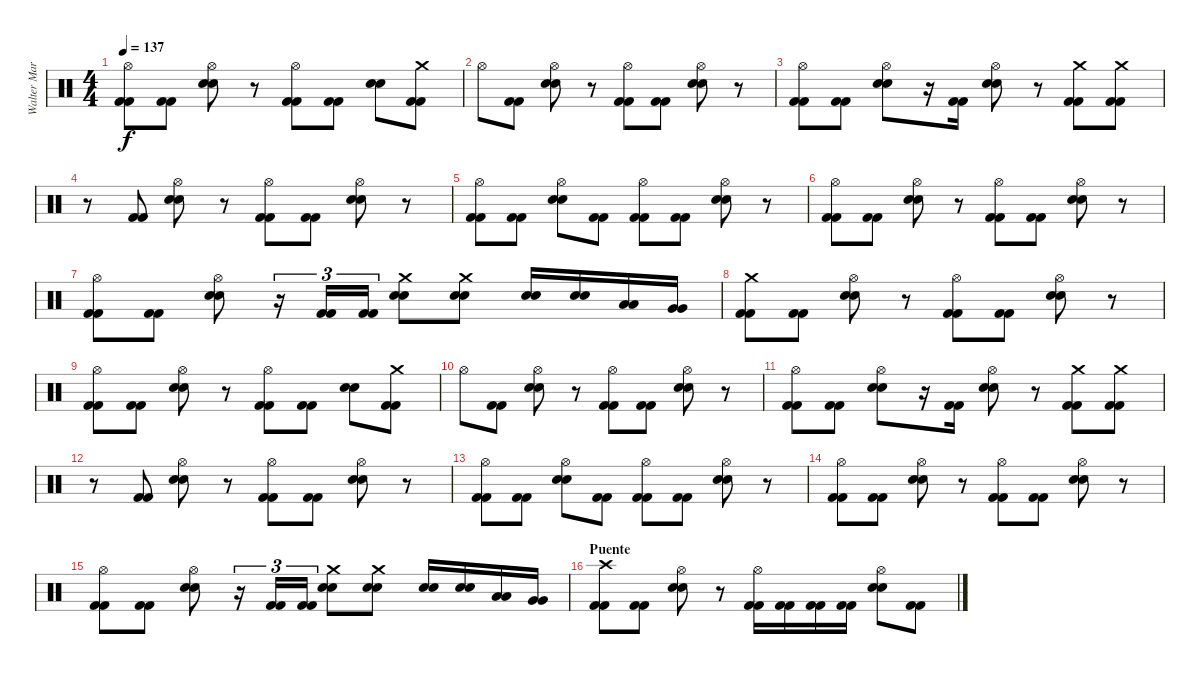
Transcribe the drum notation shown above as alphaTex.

\track ("Walter Martinez (bateria)" "Walter Mar") {instrument percussion}
\staff {score}
\articulation defaults
\ts (4 4)
\tempo 137
\clef neutral
\ks c
("Hi-Hat (open)" "Kick (hit) 2" "Kick (hit) 2").8{dy f} ("Kick (hit) 2" "Kick (hit) 2").8 ("Hi-Hat (open)" "Snare (hit) 2" "Snare (hit) 2").8 r.8 ("Hi-Hat (open)" "Kick (hit) 2" "Kick (hit) 2").8 ("Kick (hit) 2" "Kick (hit) 2").8 ("Snare (hit) 2" "Snare (hit) 2").8 ("Crash medium (hit)" "Kick (hit) 2" "Kick (hit) 2").8 |
"Hi-Hat (open)".8 ("Kick (hit) 2" "Kick (hit) 2").8 ("Hi-Hat (open)" "Snare (hit) 2" "Snare (hit) 2").8 r.8 ("Hi-Hat (open)" "Kick (hit) 2" "Kick (hit) 2").8 ("Kick (hit) 2" "Kick (hit) 2").8 ("Hi-Hat (open)" "Snare (hit) 2" "Snare (hit) 2").8 r.8 |
("Hi-Hat (open)" "Kick (hit) 2" "Kick (hit) 2").8 ("Kick (hit) 2" "Kick (hit) 2").8 ("Hi-Hat (open)" "Snare (hit) 2" "Snare (hit) 2").8 r.16 ("Kick (hit) 2" "Kick (hit) 2").16 ("Hi-Hat (open)" "Snare (hit) 2" "Snare (hit) 2").8 r.8 ("Crash medium (hit)" "Kick (hit) 2" "Kick (hit) 2").8 ("Crash medium (hit)" "Kick (hit) 2" "Kick (hit) 2").8 |
r.8 ("Kick (hit) 2" "Kick (hit) 2").8 ("Hi-Hat (open)" "Snare (hit) 2" "Snare (hit) 2").8 r.8 ("Hi-Hat (open)" "Kick (hit) 2" "Kick (hit) 2").8 ("Kick (hit) 2" "Kick (hit) 2").8 ("Hi-Hat (open)" "Snare (hit) 2" "Snare (hit) 2").8 r.8 |
("Hi-Hat (open)" "Kick (hit) 2" "Kick (hit) 2").8 ("Kick (hit) 2" "Kick (hit) 2").8 ("Hi-Hat (open)" "Snare (hit) 2" "Snare (hit) 2").8 ("Kick (hit) 2" "Kick (hit) 2").8 ("Hi-Hat (open)" "Kick (hit) 2" "Kick (hit) 2").8 ("Kick (hit) 2" "Kick (hit) 2").8 ("Hi-Hat (open)" "Snare (hit) 2" "Snare (hit) 2").8 r.8 |
("Hi-Hat (open)" "Kick (hit) 2" "Kick (hit) 2").8 ("Kick (hit) 2" "Kick (hit) 2").8 ("Hi-Hat (open)" "Snare (hit) 2" "Snare (hit) 2").8 r.8 ("Hi-Hat (open)" "Kick (hit) 2" "Kick (hit) 2").8 ("Kick (hit) 2" "Kick (hit) 2").8 ("Hi-Hat (open)" "Snare (hit) 2" "Snare (hit) 2").8 r.8 |
("Hi-Hat (open)" "Kick (hit) 2" "Kick (hit) 2").8 ("Kick (hit) 2" "Kick (hit) 2").8 ("Hi-Hat (open)" "Snare (hit) 2" "Snare (hit) 2").8 r.16{tu (3 2)} ("Kick (hit) 2" "Kick (hit) 2").16{tu (3 2)} ("Kick (hit) 2" "Kick (hit) 2").16{tu (3 2)} ("Crash medium (hit)" "Snare (hit) 2" "Snare (hit) 2").8 ("Crash medium (hit)" "Snare (hit) 2" "Snare (hit) 2").8 ("Snare (hit) 2" "Snare (hit) 2").16 ("Snare (hit) 2" "Snare (hit) 2").16 ("Low Tom (hit)" "Low Tom (hit)").16 ("Very Low Tom (hit)" "Very Low Tom (hit)").16 |
("Crash medium (hit)" "Kick (hit) 2" "Kick (hit) 2").8 ("Kick (hit) 2" "Kick (hit) 2").8 ("Hi-Hat (open)" "Snare (hit) 2" "Snare (hit) 2").8 r.8 ("Hi-Hat (open)" "Kick (hit) 2" "Kick (hit) 2").8 ("Kick (hit) 2" "Kick (hit) 2").8 ("Hi-Hat (open)" "Snare (hit) 2" "Snare (hit) 2").8 r.8 |
("Hi-Hat (open)" "Kick (hit) 2" "Kick (hit) 2").8 ("Kick (hit) 2" "Kick (hit) 2").8 ("Hi-Hat (open)" "Snare (hit) 2" "Snare (hit) 2").8 r.8 ("Hi-Hat (open)" "Kick (hit) 2" "Kick (hit) 2").8 ("Kick (hit) 2" "Kick (hit) 2").8 ("Snare (hit) 2" "Snare (hit) 2").8 ("Crash medium (hit)" "Kick (hit) 2" "Kick (hit) 2").8 |
"Hi-Hat (open)".8 ("Kick (hit) 2" "Kick (hit) 2").8 ("Hi-Hat (open)" "Snare (hit) 2" "Snare (hit) 2").8 r.8 ("Hi-Hat (open)" "Kick (hit) 2" "Kick (hit) 2").8 ("Kick (hit) 2" "Kick (hit) 2").8 ("Hi-Hat (open)" "Snare (hit) 2" "Snare (hit) 2").8 r.8 |
("Hi-Hat (open)" "Kick (hit) 2" "Kick (hit) 2").8 ("Kick (hit) 2" "Kick (hit) 2").8 ("Hi-Hat (open)" "Snare (hit) 2" "Snare (hit) 2").8 r.16 ("Kick (hit) 2" "Kick (hit) 2").16 ("Hi-Hat (open)" "Snare (hit) 2" "Snare (hit) 2").8 r.8 ("Crash medium (hit)" "Kick (hit) 2" "Kick (hit) 2").8 ("Crash medium (hit)" "Kick (hit) 2" "Kick (hit) 2").8 |
r.8 ("Kick (hit) 2" "Kick (hit) 2").8 ("Hi-Hat (open)" "Snare (hit) 2" "Snare (hit) 2").8 r.8 ("Hi-Hat (open)" "Kick (hit) 2" "Kick (hit) 2").8 ("Kick (hit) 2" "Kick (hit) 2").8 ("Hi-Hat (open)" "Snare (hit) 2" "Snare (hit) 2").8 r.8 |
("Hi-Hat (open)" "Kick (hit) 2" "Kick (hit) 2").8 ("Kick (hit) 2" "Kick (hit) 2").8 ("Hi-Hat (open)" "Snare (hit) 2" "Snare (hit) 2").8 ("Kick (hit) 2" "Kick (hit) 2").8 ("Hi-Hat (open)" "Kick (hit) 2" "Kick (hit) 2").8 ("Kick (hit) 2" "Kick (hit) 2").8 ("Hi-Hat (open)" "Snare (hit) 2" "Snare (hit) 2").8 r.8 |
("Hi-Hat (open)" "Kick (hit) 2" "Kick (hit) 2").8 ("Kick (hit) 2" "Kick (hit) 2").8 ("Hi-Hat (open)" "Snare (hit) 2" "Snare (hit) 2").8 r.8 ("Hi-Hat (open)" "Kick (hit) 2" "Kick (hit) 2").8 ("Kick (hit) 2" "Kick (hit) 2").8 ("Hi-Hat (open)" "Snare (hit) 2" "Snare (hit) 2").8 r.8 |
("Hi-Hat (open)" "Kick (hit) 2" "Kick (hit) 2").8 ("Kick (hit) 2" "Kick (hit) 2").8 ("Hi-Hat (open)" "Snare (hit) 2" "Snare (hit) 2").8 r.16{tu (3 2)} ("Kick (hit) 2" "Kick (hit) 2").16{tu (3 2)} ("Kick (hit) 2" "Kick (hit) 2").16{tu (3 2)} ("Crash medium (hit)" "Snare (hit) 2" "Snare (hit) 2").8 ("Crash medium (hit)" "Snare (hit) 2" "Snare (hit) 2").8 ("Snare (hit) 2" "Snare (hit) 2").16 ("Snare (hit) 2" "Snare (hit) 2").16 ("Low Tom (hit)" "Low Tom (hit)").16 ("Very Low Tom (hit)" "Very Low Tom (hit)").16 |
\section ("" "Puente")
("Crash high (hit)" "Kick (hit) 2" "Kick (hit) 2").8 ("Kick (hit) 2" "Kick (hit) 2").8 ("Hi-Hat (open)" "Snare (hit) 2" "Snare (hit) 2").8 r.8 ("Hi-Hat (open)" "Kick (hit) 2" "Kick (hit) 2").16 ("Kick (hit) 2" "Kick (hit) 2").16 ("Kick (hit) 2" "Kick (hit) 2").16 ("Kick (hit) 2" "Kick (hit) 2").16 ("Hi-Hat (open)" "Snare (hit) 2" "Snare (hit) 2").8 ("Kick (hit) 2" "Kick (hit) 2").8
